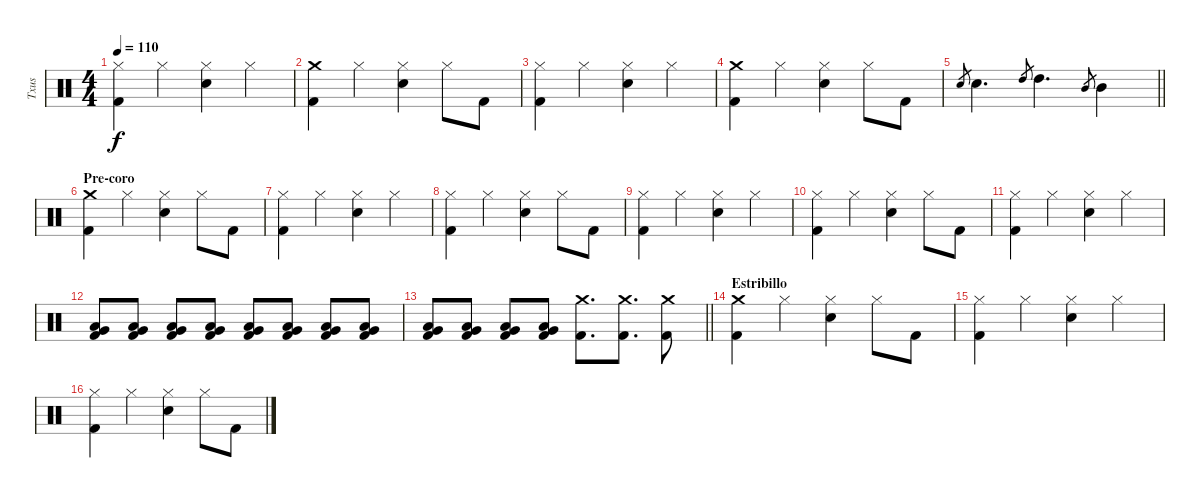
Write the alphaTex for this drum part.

\track ("Txus" "Txus") {instrument percussion}
\staff {score}
\articulation defaults
\ts (4 4)
\tempo 110
\clef neutral
\ks c
("Hi-Hat (closed)" "Kick (hit) 2").4{dy f} "Hi-Hat (closed)".4 ("Hi-Hat (closed)" "Electric Snare (hit)").4 "Hi-Hat (closed)".4 |
("Crash medium (hit)" "Kick (hit) 2").4 "Hi-Hat (closed)".4 ("Hi-Hat (closed)" "Electric Snare (hit)").4 "Hi-Hat (closed)".8 "Kick (hit) 2".8 |
("Hi-Hat (closed)" "Kick (hit) 2").4 "Hi-Hat (closed)".4 ("Hi-Hat (closed)" "Electric Snare (hit)").4 "Hi-Hat (closed)".4 |
("Crash medium (hit)" "Kick (hit) 2").4 "Hi-Hat (closed)".4 ("Hi-Hat (closed)" "Electric Snare (hit)").4 "Hi-Hat (closed)".8 "Kick (hit) 2".8 |
\barLineRight lightlight "Electric Snare (hit)".8{gr} "Electric Snare (hit)".4{d} "High Tom (hit)".8{gr} "High Tom (hit)".4{d} "Mid Tom (hit)".8{gr} "Mid Tom (hit)".4
|
\section ("" "Pre-coro")
("Crash medium (hit)" "Kick (hit) 2").4 "Hi-Hat (closed)".4 ("Hi-Hat (closed)" "Electric Snare (hit)").4 "Hi-Hat (closed)".8 "Kick (hit) 2".8 |
("Hi-Hat (closed)" "Kick (hit) 2").4 "Hi-Hat (closed)".4 ("Hi-Hat (closed)" "Electric Snare (hit)").4 "Hi-Hat (closed)".4 |
("Hi-Hat (closed)" "Kick (hit) 2").4 "Hi-Hat (closed)".4 ("Hi-Hat (closed)" "Electric Snare (hit)").4 "Hi-Hat (closed)".8 "Kick (hit) 2".8 |
("Hi-Hat (closed)" "Kick (hit) 2").4 "Hi-Hat (closed)".4 ("Hi-Hat (closed)" "Electric Snare (hit)").4 "Hi-Hat (closed)".4 |
("Hi-Hat (closed)" "Kick (hit) 2").4 "Hi-Hat (closed)".4 ("Hi-Hat (closed)" "Electric Snare (hit)").4 "Hi-Hat (closed)".8 "Kick (hit) 2".8 |
("Hi-Hat (closed)" "Kick (hit) 2").4 "Hi-Hat (closed)".4 ("Hi-Hat (closed)" "Electric Snare (hit)").4 "Hi-Hat (closed)".4 |
("Low Floor Tom (hit)" "Very Low Tom (hit)" "Kick (hit) 2").8{volume 3} ("Low Floor Tom (hit)" "Very Low Tom (hit)" "Kick (hit) 2").8{volume 12} ("Low Floor Tom (hit)" "Very Low Tom (hit)" "Kick (hit) 2").8 ("Low Floor Tom (hit)" "Very Low Tom (hit)" "Kick (hit) 2").8 ("Low Floor Tom (hit)" "Very Low Tom (hit)" "Kick (hit) 2").8 ("Low Floor Tom (hit)" "Very Low Tom (hit)" "Kick (hit) 2").8 ("Low Floor Tom (hit)" "Very Low Tom (hit)" "Kick (hit) 2").8 ("Low Floor Tom (hit)" "Very Low Tom (hit)" "Kick (hit) 2").8 |
\barLineRight lightlight
("Low Floor Tom (hit)" "Very Low Tom (hit)" "Kick (hit) 2").8 ("Low Floor Tom (hit)" "Very Low Tom (hit)" "Kick (hit) 2").8 ("Low Floor Tom (hit)" "Very Low Tom (hit)" "Kick (hit) 2").8 ("Low Floor Tom (hit)" "Very Low Tom (hit)" "Kick (hit) 2").8 ("Crash medium (hit)" "Kick (hit) 2").8{d} ("Crash medium (hit)" "Kick (hit) 2").8{d} ("Crash medium (hit)" "Kick (hit) 2").8 |
\section ("" "Estribillo")
("Crash medium (hit)" "Kick (hit) 2").4 "Hi-Hat (closed)".4 ("Hi-Hat (closed)" "Electric Snare (hit)").4 "Hi-Hat (closed)".8 "Kick (hit) 2".8 |
("Hi-Hat (closed)" "Kick (hit) 2").4 "Hi-Hat (closed)".4 ("Hi-Hat (closed)" "Electric Snare (hit)").4 "Hi-Hat (closed)".4 |
("Hi-Hat (closed)" "Kick (hit) 2").4 "Hi-Hat (closed)".4 ("Hi-Hat (closed)" "Electric Snare (hit)").4 "Hi-Hat (closed)".8 "Kick (hit) 2".8
